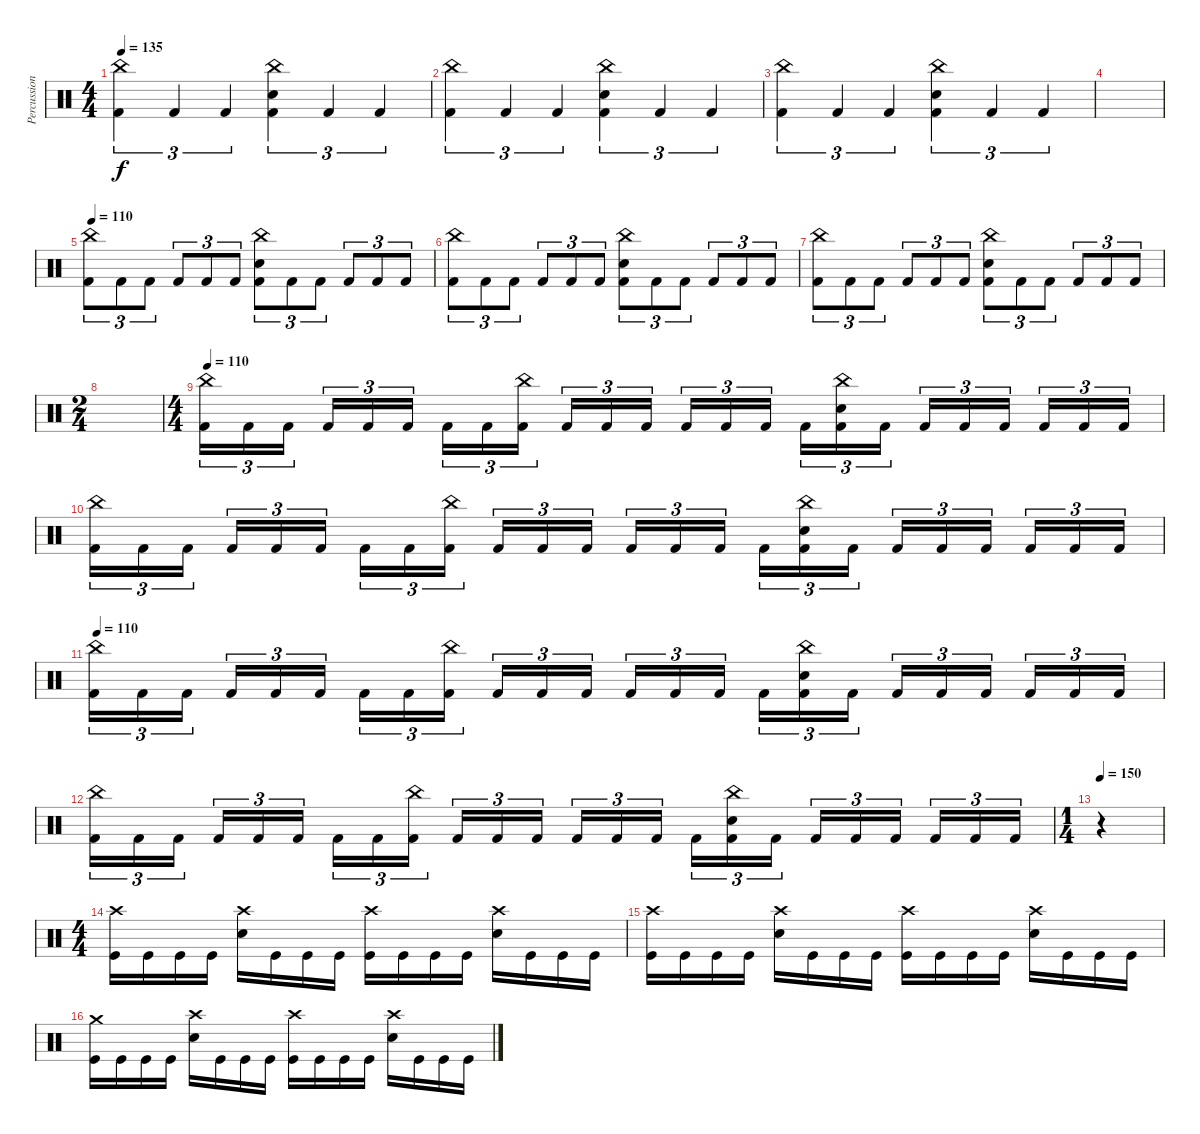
\track ("Percussion" "Percussion") {instrument percussion}
\staff {score}
\articulation defaults
\ts (4 4)
\tempo 135
\clef neutral
\ks c
("China (hit)" "Kick (hit) 2").4{tu (3 2) dy f} "Kick (hit) 2".4{tu (3 2)} "Kick (hit) 2".4{tu (3 2)} ("China (hit)" "Electric Snare (hit)" "Kick (hit) 2").4{tu (3 2)} "Kick (hit) 2".4{tu (3 2)} "Kick (hit) 2".4{tu (3 2)} |
("China (hit)" "Kick (hit) 2").4{tu (3 2)} "Kick (hit) 2".4{tu (3 2)} "Kick (hit) 2".4{tu (3 2)} ("China (hit)" "Electric Snare (hit)" "Kick (hit) 2").4{tu (3 2)} "Kick (hit) 2".4{tu (3 2)} "Kick (hit) 2".4{tu (3 2)} |
("China (hit)" "Kick (hit) 2").4{tu (3 2)} "Kick (hit) 2".4{tu (3 2)} "Kick (hit) 2".4{tu (3 2)} ("China (hit)" "Electric Snare (hit)" "Kick (hit) 2").4{tu (3 2)} "Kick (hit) 2".4{tu (3 2)} "Kick (hit) 2".4{tu (3 2)} |
|
\tempo 110
("China (hit)" "Kick (hit) 2").8{tu (3 2)} "Kick (hit) 2".8{tu (3 2)} "Kick (hit) 2".8{tu (3 2)} "Kick (hit) 2".8{tu (3 2)} "Kick (hit) 2".8{tu (3 2)} "Kick (hit) 2".8{tu (3 2)} ("China (hit)" "Electric Snare (hit)" "Kick (hit) 2").8{tu (3 2)} "Kick (hit) 2".8{tu (3 2)} "Kick (hit) 2".8{tu (3 2)} "Kick (hit) 2".8{tu (3 2)} "Kick (hit) 2".8{tu (3 2)} "Kick (hit) 2".8{tu (3 2)} |
("China (hit)" "Kick (hit) 2").8{tu (3 2)} "Kick (hit) 2".8{tu (3 2)} "Kick (hit) 2".8{tu (3 2)} "Kick (hit) 2".8{tu (3 2)} "Kick (hit) 2".8{tu (3 2)} "Kick (hit) 2".8{tu (3 2)} ("China (hit)" "Electric Snare (hit)" "Kick (hit) 2").8{tu (3 2)} "Kick (hit) 2".8{tu (3 2)} "Kick (hit) 2".8{tu (3 2)} "Kick (hit) 2".8{tu (3 2)} "Kick (hit) 2".8{tu (3 2)} "Kick (hit) 2".8{tu (3 2)} |
("China (hit)" "Kick (hit) 2").8{tu (3 2)} "Kick (hit) 2".8{tu (3 2)} "Kick (hit) 2".8{tu (3 2)} "Kick (hit) 2".8{tu (3 2)} "Kick (hit) 2".8{tu (3 2)} "Kick (hit) 2".8{tu (3 2)} ("China (hit)" "Electric Snare (hit)" "Kick (hit) 2").8{tu (3 2)} "Kick (hit) 2".8{tu (3 2)} "Kick (hit) 2".8{tu (3 2)} "Kick (hit) 2".8{tu (3 2)} "Kick (hit) 2".8{tu (3 2)} "Kick (hit) 2".8{tu (3 2)} |
\ts (2 4)
|
\ts (4 4)
\tempo 110
("China (hit)" "Kick (hit) 2").16{tu (3 2)} "Kick (hit) 2".16{tu (3 2)} "Kick (hit) 2".16{tu (3 2) beam splitsecondary} "Kick (hit) 2".16{tu (3 2)} "Kick (hit) 2".16{tu (3 2)} "Kick (hit) 2".16{tu (3 2)} "Kick (hit) 2".16{tu (3 2)} "Kick (hit) 2".16{tu (3 2)} ("China (hit)" "Kick (hit) 2").16{tu (3 2) beam splitsecondary} "Kick (hit) 2".16{tu (3 2)} "Kick (hit) 2".16{tu (3 2)} "Kick (hit) 2".16{tu (3 2)} "Kick (hit) 2".16{tu (3 2)} "Kick (hit) 2".16{tu (3 2)} "Kick (hit) 2".16{tu (3 2) beam splitsecondary} "Kick (hit) 2".16{tu (3 2)} ("China (hit)" "Electric Snare (hit)" "Kick (hit) 2").16{tu (3 2)} "Kick (hit) 2".16{tu (3 2)} "Kick (hit) 2".16{tu (3 2)} "Kick (hit) 2".16{tu (3 2)} "Kick (hit) 2".16{tu (3 2) beam splitsecondary} "Kick (hit) 2".16{tu (3 2)} "Kick (hit) 2".16{tu (3 2)} "Kick (hit) 2".16{tu (3 2)} |
("China (hit)" "Kick (hit) 2").16{tu (3 2)} "Kick (hit) 2".16{tu (3 2)} "Kick (hit) 2".16{tu (3 2) beam splitsecondary} "Kick (hit) 2".16{tu (3 2)} "Kick (hit) 2".16{tu (3 2)} "Kick (hit) 2".16{tu (3 2)} "Kick (hit) 2".16{tu (3 2)} "Kick (hit) 2".16{tu (3 2)} ("China (hit)" "Kick (hit) 2").16{tu (3 2) beam splitsecondary} "Kick (hit) 2".16{tu (3 2)} "Kick (hit) 2".16{tu (3 2)} "Kick (hit) 2".16{tu (3 2)} "Kick (hit) 2".16{tu (3 2)} "Kick (hit) 2".16{tu (3 2)} "Kick (hit) 2".16{tu (3 2) beam splitsecondary} "Kick (hit) 2".16{tu (3 2)} ("China (hit)" "Electric Snare (hit)" "Kick (hit) 2").16{tu (3 2)} "Kick (hit) 2".16{tu (3 2)} "Kick (hit) 2".16{tu (3 2)} "Kick (hit) 2".16{tu (3 2)} "Kick (hit) 2".16{tu (3 2) beam splitsecondary} "Kick (hit) 2".16{tu (3 2)} "Kick (hit) 2".16{tu (3 2)} "Kick (hit) 2".16{tu (3 2)} |
\tempo 110
("China (hit)" "Kick (hit) 2").16{tu (3 2)} "Kick (hit) 2".16{tu (3 2)} "Kick (hit) 2".16{tu (3 2) beam splitsecondary} "Kick (hit) 2".16{tu (3 2)} "Kick (hit) 2".16{tu (3 2)} "Kick (hit) 2".16{tu (3 2)} "Kick (hit) 2".16{tu (3 2)} "Kick (hit) 2".16{tu (3 2)} ("China (hit)" "Kick (hit) 2").16{tu (3 2) beam splitsecondary} "Kick (hit) 2".16{tu (3 2)} "Kick (hit) 2".16{tu (3 2)} "Kick (hit) 2".16{tu (3 2)} "Kick (hit) 2".16{tu (3 2)} "Kick (hit) 2".16{tu (3 2)} "Kick (hit) 2".16{tu (3 2) beam splitsecondary} "Kick (hit) 2".16{tu (3 2)} ("China (hit)" "Electric Snare (hit)" "Kick (hit) 2").16{tu (3 2)} "Kick (hit) 2".16{tu (3 2)} "Kick (hit) 2".16{tu (3 2)} "Kick (hit) 2".16{tu (3 2)} "Kick (hit) 2".16{tu (3 2) beam splitsecondary} "Kick (hit) 2".16{tu (3 2)} "Kick (hit) 2".16{tu (3 2)} "Kick (hit) 2".16{tu (3 2)} |
("China (hit)" "Kick (hit) 2").16{tu (3 2)} "Kick (hit) 2".16{tu (3 2)} "Kick (hit) 2".16{tu (3 2) beam splitsecondary} "Kick (hit) 2".16{tu (3 2)} "Kick (hit) 2".16{tu (3 2)} "Kick (hit) 2".16{tu (3 2)} "Kick (hit) 2".16{tu (3 2)} "Kick (hit) 2".16{tu (3 2)} ("China (hit)" "Kick (hit) 2").16{tu (3 2) beam splitsecondary} "Kick (hit) 2".16{tu (3 2)} "Kick (hit) 2".16{tu (3 2)} "Kick (hit) 2".16{tu (3 2)} "Kick (hit) 2".16{tu (3 2)} "Kick (hit) 2".16{tu (3 2)} "Kick (hit) 2".16{tu (3 2) beam splitsecondary} "Kick (hit) 2".16{tu (3 2)} ("China (hit)" "Electric Snare (hit)" "Kick (hit) 2").16{tu (3 2)} "Kick (hit) 2".16{tu (3 2)} "Kick (hit) 2".16{tu (3 2)} "Kick (hit) 2".16{tu (3 2)} "Kick (hit) 2".16{tu (3 2) beam splitsecondary} "Kick (hit) 2".16{tu (3 2)} "Kick (hit) 2".16{tu (3 2)} "Kick (hit) 2".16{tu (3 2)} |
\ts (1 4)
\tempo 150
r.4 |
\ts (4 4)
("Kick (hit)" "Crash high (hit)").16 "Kick (hit)".16 "Kick (hit)".16 "Kick (hit)".16 ("Electric Snare (hit)" "Crash high (hit)").16 "Kick (hit)".16 "Kick (hit)".16 "Kick (hit)".16 ("Kick (hit)" "Crash high (hit)").16 "Kick (hit)".16 "Kick (hit)".16 "Kick (hit)".16 ("Electric Snare (hit)" "Crash high (hit)").16 "Kick (hit)".16 "Kick (hit)".16 "Kick (hit)".16 |
("Kick (hit)" "Crash high (hit)").16 "Kick (hit)".16 "Kick (hit)".16 "Kick (hit)".16 ("Electric Snare (hit)" "Crash high (hit)").16 "Kick (hit)".16 "Kick (hit)".16 "Kick (hit)".16 ("Kick (hit)" "Crash high (hit)").16 "Kick (hit)".16 "Kick (hit)".16 "Kick (hit)".16 ("Electric Snare (hit)" "Crash high (hit)").16 "Kick (hit)".16 "Kick (hit)".16 "Kick (hit)".16 |
("Kick (hit)" "Crash medium (hit)").16 "Kick (hit)".16 "Kick (hit)".16 "Kick (hit)".16 ("Electric Snare (hit)" "Crash high (hit)").16 "Kick (hit)".16 "Kick (hit)".16 "Kick (hit)".16 ("Kick (hit)" "Crash high (hit)").16 "Kick (hit)".16 "Kick (hit)".16 "Kick (hit)".16 ("Electric Snare (hit)" "Crash high (hit)").16 "Kick (hit)".16 "Kick (hit)".16 "Kick (hit)".16
